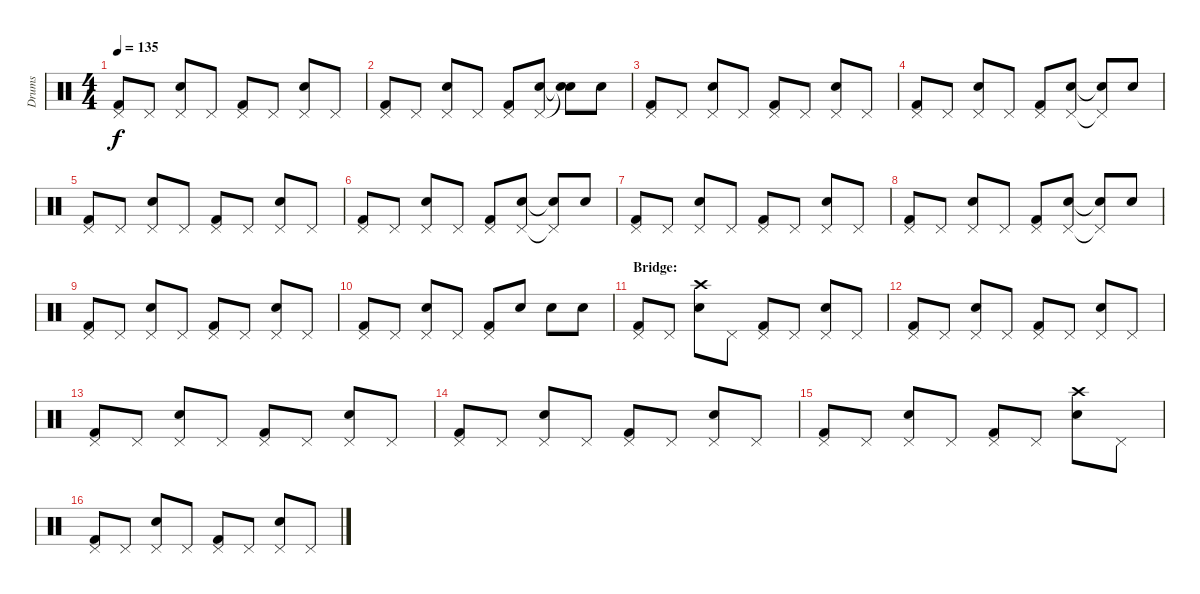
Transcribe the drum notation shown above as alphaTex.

\track ("Drums" "Drums") {instrument percussion}
\staff {score}
\articulation defaults
\ts (4 4)
\tempo 135
\clef neutral
\ks c
("Pedal Hi-Hat (hit)" "Kick (hit) 2").8{dy f} "Pedal Hi-Hat (hit)".8 ("Pedal Hi-Hat (hit)" "Snare (hit) 2").8 "Pedal Hi-Hat (hit)".8 ("Pedal Hi-Hat (hit)" "Kick (hit) 2").8 "Pedal Hi-Hat (hit)".8 ("Pedal Hi-Hat (hit)" "Snare (hit) 2").8 "Pedal Hi-Hat (hit)".8 |
("Pedal Hi-Hat (hit)" "Kick (hit) 2").8 "Pedal Hi-Hat (hit)".8 ("Pedal Hi-Hat (hit)" "Snare (hit) 2").8 "Pedal Hi-Hat (hit)".8 ("Pedal Hi-Hat (hit)" "Kick (hit) 2").8 ("Pedal Hi-Hat (hit)" "Snare (hit) 2").8 ("Snare (hit)"{t} "Snare (hit) 2"{t}).8 "Snare (hit) 2".8 |
("Pedal Hi-Hat (hit)" "Kick (hit) 2").8 "Pedal Hi-Hat (hit)".8 ("Pedal Hi-Hat (hit)" "Snare (hit) 2").8 "Pedal Hi-Hat (hit)".8 ("Pedal Hi-Hat (hit)" "Kick (hit) 2").8 "Pedal Hi-Hat (hit)".8 ("Pedal Hi-Hat (hit)" "Snare (hit) 2").8 "Pedal Hi-Hat (hit)".8 |
("Pedal Hi-Hat (hit)" "Kick (hit) 2").8 "Pedal Hi-Hat (hit)".8 ("Pedal Hi-Hat (hit)" "Snare (hit) 2").8 "Pedal Hi-Hat (hit)".8 ("Pedal Hi-Hat (hit)" "Kick (hit) 2").8 ("Pedal Hi-Hat (hit)" "Snare (hit) 2").8 ("Pedal Hi-Hat (hit)"{t} "Snare (hit)"{t}).8 "Snare (hit) 2".8 |
("Pedal Hi-Hat (hit)" "Kick (hit) 2").8 "Pedal Hi-Hat (hit)".8 ("Pedal Hi-Hat (hit)" "Snare (hit) 2").8 "Pedal Hi-Hat (hit)".8 ("Pedal Hi-Hat (hit)" "Kick (hit) 2").8 "Pedal Hi-Hat (hit)".8 ("Pedal Hi-Hat (hit)" "Snare (hit) 2").8 "Pedal Hi-Hat (hit)".8 |
("Pedal Hi-Hat (hit)" "Kick (hit) 2").8 "Pedal Hi-Hat (hit)".8 ("Pedal Hi-Hat (hit)" "Snare (hit) 2").8 "Pedal Hi-Hat (hit)".8 ("Pedal Hi-Hat (hit)" "Kick (hit) 2").8 ("Pedal Hi-Hat (hit)" "Snare (hit) 2").8 ("Pedal Hi-Hat (hit)"{t} "Snare (hit)"{t}).8 "Snare (hit) 2".8 |
("Pedal Hi-Hat (hit)" "Kick (hit) 2").8 "Pedal Hi-Hat (hit)".8 ("Pedal Hi-Hat (hit)" "Snare (hit) 2").8 "Pedal Hi-Hat (hit)".8 ("Pedal Hi-Hat (hit)" "Kick (hit) 2").8 "Pedal Hi-Hat (hit)".8 ("Pedal Hi-Hat (hit)" "Snare (hit) 2").8 "Pedal Hi-Hat (hit)".8 |
("Pedal Hi-Hat (hit)" "Kick (hit) 2").8 "Pedal Hi-Hat (hit)".8 ("Pedal Hi-Hat (hit)" "Snare (hit) 2").8 "Pedal Hi-Hat (hit)".8 ("Pedal Hi-Hat (hit)" "Kick (hit) 2").8 ("Pedal Hi-Hat (hit)" "Snare (hit) 2").8 ("Pedal Hi-Hat (hit)"{t} "Snare (hit)"{t}).8 "Snare (hit) 2".8 |
("Pedal Hi-Hat (hit)" "Kick (hit) 2").8 "Pedal Hi-Hat (hit)".8 ("Pedal Hi-Hat (hit)" "Snare (hit) 2").8 "Pedal Hi-Hat (hit)".8 ("Pedal Hi-Hat (hit)" "Kick (hit) 2").8 "Pedal Hi-Hat (hit)".8 ("Pedal Hi-Hat (hit)" "Snare (hit) 2").8 "Pedal Hi-Hat (hit)".8 |
("Pedal Hi-Hat (hit)" "Kick (hit) 2").8 "Pedal Hi-Hat (hit)".8 ("Pedal Hi-Hat (hit)" "Snare (hit) 2").8 "Pedal Hi-Hat (hit)".8 ("Pedal Hi-Hat (hit)" "Kick (hit) 2").8 "Snare (hit) 2".8 "Snare (hit) 2".8 "Snare (hit) 2".8 |
\section ("" "Bridge:")
("Pedal Hi-Hat (hit)" "Kick (hit) 2").8 "Pedal Hi-Hat (hit)".8 ("Crash high (hit)" "Snare (hit) 2").8 "Pedal Hi-Hat (hit)".8 ("Pedal Hi-Hat (hit)" "Kick (hit) 2").8 "Pedal Hi-Hat (hit)".8 ("Pedal Hi-Hat (hit)" "Snare (hit) 2").8 "Pedal Hi-Hat (hit)".8 |
("Pedal Hi-Hat (hit)" "Kick (hit) 2").8 "Pedal Hi-Hat (hit)".8 ("Pedal Hi-Hat (hit)" "Snare (hit) 2").8 "Pedal Hi-Hat (hit)".8 ("Pedal Hi-Hat (hit)" "Kick (hit) 2").8 "Pedal Hi-Hat (hit)".8 ("Pedal Hi-Hat (hit)" "Snare (hit) 2").8 "Pedal Hi-Hat (hit)".8 |
("Pedal Hi-Hat (hit)" "Kick (hit) 2").8 "Pedal Hi-Hat (hit)".8 ("Pedal Hi-Hat (hit)" "Snare (hit) 2").8 "Pedal Hi-Hat (hit)".8 ("Pedal Hi-Hat (hit)" "Kick (hit) 2").8 "Pedal Hi-Hat (hit)".8 ("Pedal Hi-Hat (hit)" "Snare (hit) 2").8 "Pedal Hi-Hat (hit)".8 |
("Pedal Hi-Hat (hit)" "Kick (hit) 2").8 "Pedal Hi-Hat (hit)".8 ("Pedal Hi-Hat (hit)" "Snare (hit) 2").8 "Pedal Hi-Hat (hit)".8 ("Pedal Hi-Hat (hit)" "Kick (hit) 2").8 "Pedal Hi-Hat (hit)".8 ("Pedal Hi-Hat (hit)" "Snare (hit) 2").8 "Pedal Hi-Hat (hit)".8 |
("Pedal Hi-Hat (hit)" "Kick (hit) 2").8 "Pedal Hi-Hat (hit)".8 ("Pedal Hi-Hat (hit)" "Snare (hit) 2").8 "Pedal Hi-Hat (hit)".8 ("Pedal Hi-Hat (hit)" "Kick (hit) 2").8 "Pedal Hi-Hat (hit)".8 ("Crash high (hit)" "Snare (hit) 2").8 "Pedal Hi-Hat (hit)".8 |
("Pedal Hi-Hat (hit)" "Kick (hit) 2").8 "Pedal Hi-Hat (hit)".8 ("Pedal Hi-Hat (hit)" "Snare (hit) 2").8 "Pedal Hi-Hat (hit)".8 ("Pedal Hi-Hat (hit)" "Kick (hit) 2").8 "Pedal Hi-Hat (hit)".8 ("Pedal Hi-Hat (hit)" "Snare (hit) 2").8 "Pedal Hi-Hat (hit)".8
